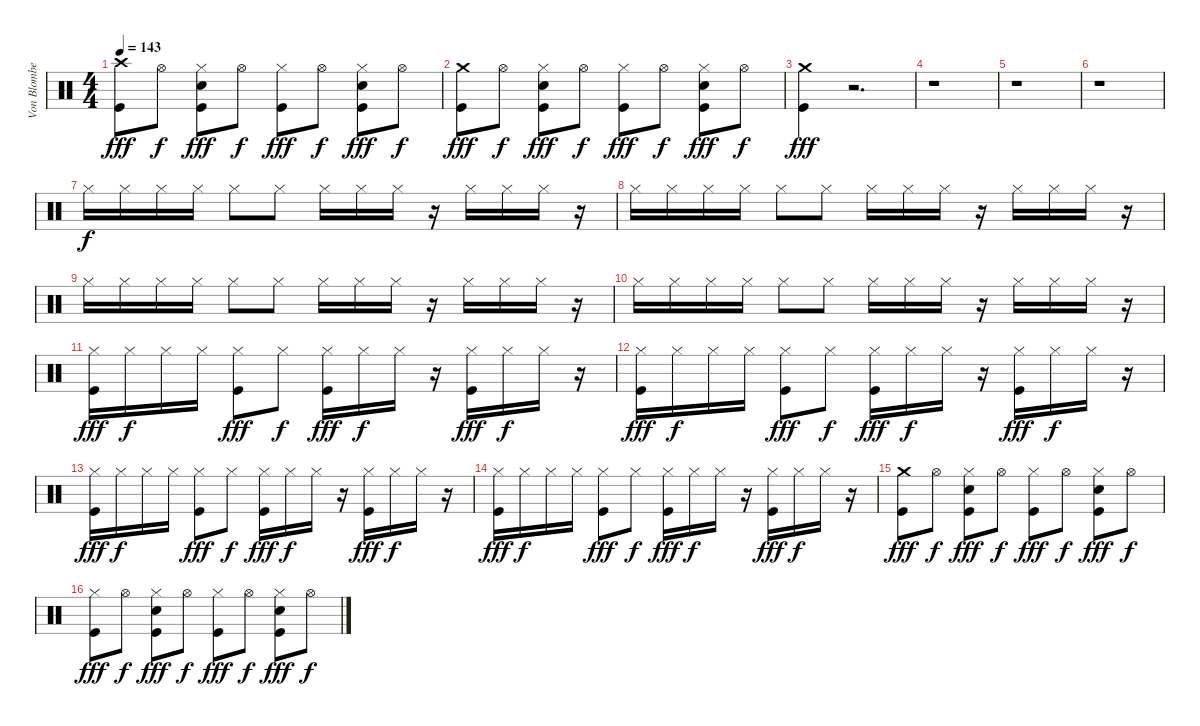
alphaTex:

\track ("Von Blomberg" "Von Blombe") {instrument percussion}
\staff {score}
\articulation defaults
\ts (4 4)
\tempo 143
\clef neutral
\ks c
("Crash high (hit)" "Kick (hit)").8{dy fff} "Hi-Hat (open)".8{dy f} ("Hi-Hat (closed)" "Electric Snare (hit)" "Kick (hit)").8{dy fff} "Hi-Hat (open)".8{dy f} ("Hi-Hat (closed)" "Kick (hit)").8{dy fff} "Hi-Hat (open)".8{dy f} ("Hi-Hat (closed)" "Electric Snare (hit)" "Kick (hit)").8{dy fff} "Hi-Hat (open)".8{dy f} |
("Crash medium (hit)" "Kick (hit)").8{dy fff} "Hi-Hat (open)".8{dy f} ("Hi-Hat (closed)" "Electric Snare (hit)" "Kick (hit)").8{dy fff} "Hi-Hat (open)".8{dy f} ("Hi-Hat (closed)" "Kick (hit)").8{dy fff} "Hi-Hat (open)".8{dy f} ("Hi-Hat (closed)" "Electric Snare (hit)" "Kick (hit)").8{dy fff} "Hi-Hat (open)".8{dy f} |
("Crash medium (hit)" "Kick (hit)").4{dy fff} r.2{d} |
r.1 |
r.1 |
r.1 |
"Hi-Hat (closed)".16{dy f} "Hi-Hat (closed)".16 "Hi-Hat (closed)".16 "Hi-Hat (closed)".16 "Hi-Hat (closed)".8 "Hi-Hat (closed)".8 "Hi-Hat (closed)".16 "Hi-Hat (closed)".16 "Hi-Hat (closed)".16 r.16 "Hi-Hat (closed)".16 "Hi-Hat (closed)".16 "Hi-Hat (closed)".16 r.16 |
"Hi-Hat (closed)".16 "Hi-Hat (closed)".16 "Hi-Hat (closed)".16 "Hi-Hat (closed)".16 "Hi-Hat (closed)".8 "Hi-Hat (closed)".8 "Hi-Hat (closed)".16 "Hi-Hat (closed)".16 "Hi-Hat (closed)".16 r.16 "Hi-Hat (closed)".16 "Hi-Hat (closed)".16 "Hi-Hat (closed)".16 r.16 |
"Hi-Hat (closed)".16 "Hi-Hat (closed)".16 "Hi-Hat (closed)".16 "Hi-Hat (closed)".16 "Hi-Hat (closed)".8 "Hi-Hat (closed)".8 "Hi-Hat (closed)".16 "Hi-Hat (closed)".16 "Hi-Hat (closed)".16 r.16 "Hi-Hat (closed)".16 "Hi-Hat (closed)".16 "Hi-Hat (closed)".16 r.16 |
"Hi-Hat (closed)".16 "Hi-Hat (closed)".16 "Hi-Hat (closed)".16 "Hi-Hat (closed)".16 "Hi-Hat (closed)".8 "Hi-Hat (closed)".8 "Hi-Hat (closed)".16 "Hi-Hat (closed)".16 "Hi-Hat (closed)".16 r.16 "Hi-Hat (closed)".16 "Hi-Hat (closed)".16 "Hi-Hat (closed)".16 r.16 |
("Hi-Hat (closed)" "Kick (hit)").16{dy fff} "Hi-Hat (closed)".16{dy f} "Hi-Hat (closed)".16 "Hi-Hat (closed)".16 ("Hi-Hat (closed)" "Kick (hit)").8{dy fff} "Hi-Hat (closed)".8{dy f} ("Hi-Hat (closed)" "Kick (hit)").16{dy fff} "Hi-Hat (closed)".16{dy f} "Hi-Hat (closed)".16 r.16 ("Hi-Hat (closed)" "Kick (hit)").16{dy fff} "Hi-Hat (closed)".16{dy f} "Hi-Hat (closed)".16 r.16 |
("Hi-Hat (closed)" "Kick (hit)").16{dy fff} "Hi-Hat (closed)".16{dy f} "Hi-Hat (closed)".16 "Hi-Hat (closed)".16 ("Hi-Hat (closed)" "Kick (hit)").8{dy fff} "Hi-Hat (closed)".8{dy f} ("Hi-Hat (closed)" "Kick (hit)").16{dy fff} "Hi-Hat (closed)".16{dy f} "Hi-Hat (closed)".16 r.16 ("Hi-Hat (closed)" "Kick (hit)").16{dy fff} "Hi-Hat (closed)".16{dy f} "Hi-Hat (closed)".16 r.16 |
("Hi-Hat (closed)" "Kick (hit)").16{dy fff} "Hi-Hat (closed)".16{dy f} "Hi-Hat (closed)".16 "Hi-Hat (closed)".16 ("Hi-Hat (closed)" "Kick (hit)").8{dy fff} "Hi-Hat (closed)".8{dy f} ("Hi-Hat (closed)" "Kick (hit)").16{dy fff} "Hi-Hat (closed)".16{dy f} "Hi-Hat (closed)".16 r.16 ("Hi-Hat (closed)" "Kick (hit)").16{dy fff} "Hi-Hat (closed)".16{dy f} "Hi-Hat (closed)".16 r.16 |
("Hi-Hat (closed)" "Kick (hit)").16{dy fff} "Hi-Hat (closed)".16{dy f} "Hi-Hat (closed)".16 "Hi-Hat (closed)".16 ("Hi-Hat (closed)" "Kick (hit)").8{dy fff} "Hi-Hat (closed)".8{dy f} ("Hi-Hat (closed)" "Kick (hit)").16{dy fff} "Hi-Hat (closed)".16{dy f} "Hi-Hat (closed)".16 r.16 ("Hi-Hat (closed)" "Kick (hit)").16{dy fff} "Hi-Hat (closed)".16{dy f} "Hi-Hat (closed)".16 r.16 |
("Crash medium (hit)" "Kick (hit)").8{dy fff} "Hi-Hat (open)".8{dy f} ("Hi-Hat (closed)" "Electric Snare (hit)" "Kick (hit)").8{dy fff} "Hi-Hat (open)".8{dy f} ("Hi-Hat (closed)" "Kick (hit)").8{dy fff} "Hi-Hat (open)".8{dy f} ("Hi-Hat (closed)" "Electric Snare (hit)" "Kick (hit)").8{dy fff} "Hi-Hat (open)".8{dy f} |
("Hi-Hat (closed)" "Kick (hit)").8{dy fff} "Hi-Hat (open)".8{dy f} ("Hi-Hat (closed)" "Electric Snare (hit)" "Kick (hit)").8{dy fff} "Hi-Hat (open)".8{dy f} ("Hi-Hat (closed)" "Kick (hit)").8{dy fff} "Hi-Hat (open)".8{dy f} ("Hi-Hat (closed)" "Electric Snare (hit)" "Kick (hit)").8{dy fff} "Hi-Hat (open)".8{dy f}
